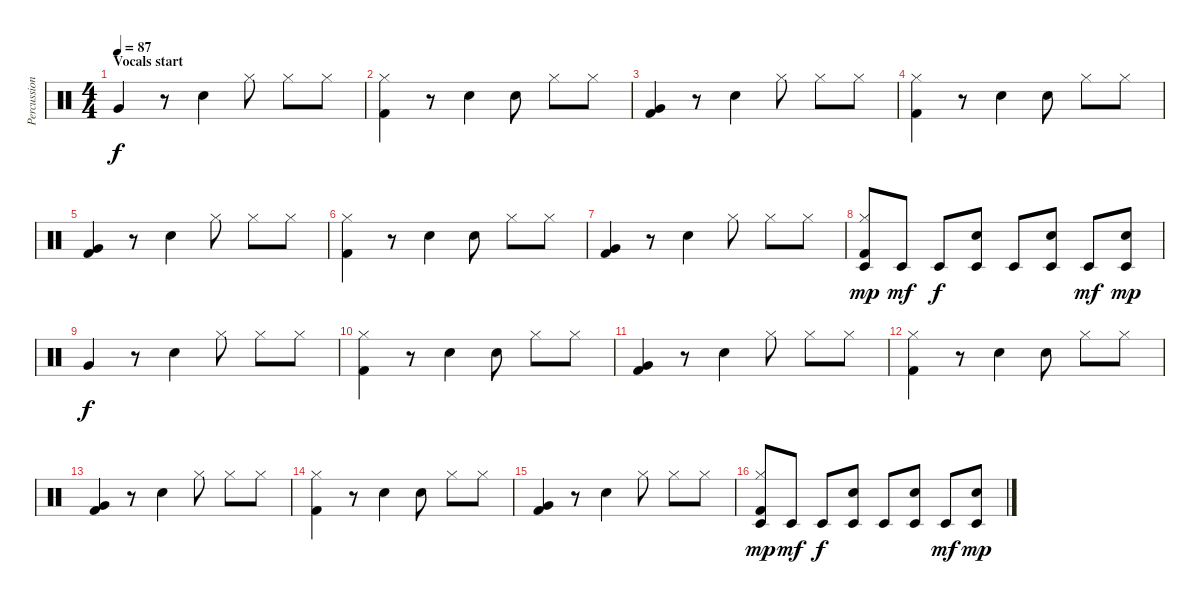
\track ("Percussion" "Percussion") {instrument percussion}
\staff {score}
\articulation defaults
\ts (4 4)
\section ("" "Vocals start")
\tempo 87
\clef neutral
\ks c "Very Low Tom (hit)".4{dy f}
r.8 "Electric Snare (hit)".4 "Hi-Hat (closed)".8 "Hi-Hat (closed)".8 "Hi-Hat (closed)".8 |
("Hi-Hat (closed)" "Kick (hit) 2").4 r.8 "Electric Snare (hit)".4 "Electric Snare (hit)".8 "Hi-Hat (closed)".8 "Hi-Hat (closed)".8 |
("Very Low Tom (hit)" "Kick (hit) 2").4 r.8 "Electric Snare (hit)".4 "Hi-Hat (closed)".8 "Hi-Hat (closed)".8 "Hi-Hat (closed)".8 |
("Hi-Hat (closed)" "Kick (hit) 2").4 r.8 "Electric Snare (hit)".4 "Electric Snare (hit)".8 "Hi-Hat (closed)".8 "Hi-Hat (closed)".8 |
("Very Low Tom (hit)" "Kick (hit) 2").4 r.8 "Electric Snare (hit)".4 "Hi-Hat (closed)".8 "Hi-Hat (closed)".8 "Hi-Hat (closed)".8 |
("Hi-Hat (closed)" "Kick (hit) 2").4 r.8 "Electric Snare (hit)".4 "Electric Snare (hit)".8 "Hi-Hat (closed)".8 "Hi-Hat (closed)".8 |
("Very Low Tom (hit)" "Kick (hit) 2").4 r.8 "Electric Snare (hit)".4 "Hi-Hat (closed)".8 "Hi-Hat (closed)".8 "Hi-Hat (closed)".8 |
("Hi-Hat (closed)" "Timbale low (hit)" "Kick (hit) 2").8{dy mp} "Timbale low (hit)".8{dy mf} "Timbale low (hit)".8{dy f} ("Electric Snare (hit)" "Timbale low (hit)").8 "Timbale low (hit)".8 ("Electric Snare (hit)" "Timbale low (hit)").8 "Timbale low (hit)".8{dy mf} ("Electric Snare (hit)" "Timbale low (hit)").8{dy mp} |
"Very Low Tom (hit)".4{dy f} r.8 "Electric Snare (hit)".4 "Hi-Hat (closed)".8 "Hi-Hat (closed)".8 "Hi-Hat (closed)".8 |
("Hi-Hat (closed)" "Kick (hit) 2").4 r.8 "Electric Snare (hit)".4 "Electric Snare (hit)".8 "Hi-Hat (closed)".8 "Hi-Hat (closed)".8 |
("Very Low Tom (hit)" "Kick (hit) 2").4 r.8 "Electric Snare (hit)".4 "Hi-Hat (closed)".8 "Hi-Hat (closed)".8 "Hi-Hat (closed)".8 |
("Hi-Hat (closed)" "Kick (hit) 2").4 r.8 "Electric Snare (hit)".4 "Electric Snare (hit)".8 "Hi-Hat (closed)".8 "Hi-Hat (closed)".8 |
("Very Low Tom (hit)" "Kick (hit) 2").4 r.8 "Electric Snare (hit)".4 "Hi-Hat (closed)".8 "Hi-Hat (closed)".8 "Hi-Hat (closed)".8 |
("Hi-Hat (closed)" "Kick (hit) 2").4 r.8 "Electric Snare (hit)".4 "Electric Snare (hit)".8 "Hi-Hat (closed)".8 "Hi-Hat (closed)".8 |
("Very Low Tom (hit)" "Kick (hit) 2").4 r.8 "Electric Snare (hit)".4 "Hi-Hat (closed)".8 "Hi-Hat (closed)".8 "Hi-Hat (closed)".8 |
("Hi-Hat (closed)" "Timbale low (hit)" "Kick (hit) 2").8{dy mp} "Timbale low (hit)".8{dy mf} "Timbale low (hit)".8{dy f} ("Electric Snare (hit)" "Timbale low (hit)").8 "Timbale low (hit)".8 ("Electric Snare (hit)" "Timbale low (hit)").8 "Timbale low (hit)".8{dy mf} ("Electric Snare (hit)" "Timbale low (hit)").8{dy mp}
